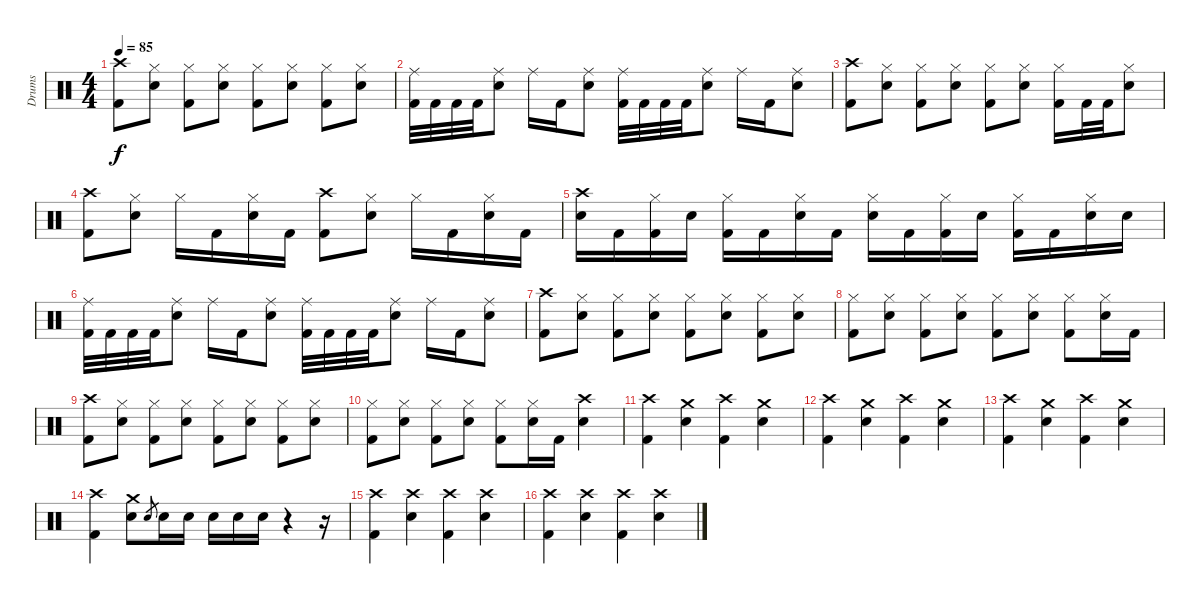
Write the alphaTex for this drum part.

\track ("Drums" "Drums") {instrument percussion}
\staff {score}
\articulation defaults
\ts (4 4)
\tempo 85
\clef neutral
\ks c
("Crash high (hit)" "Kick (hit) 2").8{dy f} ("Hi-Hat (closed)" "Electric Snare (hit)").8 ("Hi-Hat (closed)" "Kick (hit) 2").8 ("Hi-Hat (closed)" "Electric Snare (hit)").8 ("Hi-Hat (closed)" "Kick (hit) 2").8 ("Hi-Hat (closed)" "Electric Snare (hit)").8 ("Hi-Hat (closed)" "Kick (hit) 2").8 ("Hi-Hat (closed)" "Electric Snare (hit)").8 |
("Ride (middle)" "Kick (hit) 2").32 "Kick (hit) 2".32 "Kick (hit) 2".32 "Kick (hit) 2".32 ("Ride (middle)" "Electric Snare (hit)").8 "Ride (middle)".16 "Kick (hit) 2".16 ("Ride (middle)" "Electric Snare (hit)").8 ("Ride (middle)" "Kick (hit) 2").32 "Kick (hit) 2".32 "Kick (hit) 2".32 "Kick (hit) 2".32 ("Ride (middle)" "Electric Snare (hit)").8 "Ride (middle)".16 "Kick (hit) 2".16 ("Ride (middle)" "Electric Snare (hit)").8 |
("Crash high (hit)" "Kick (hit) 2").8 ("Hi-Hat (closed)" "Electric Snare (hit)").8 ("Hi-Hat (closed)" "Kick (hit) 2").8 ("Hi-Hat (closed)" "Electric Snare (hit)").8 ("Hi-Hat (closed)" "Kick (hit) 2").8 ("Hi-Hat (closed)" "Electric Snare (hit)").8 ("Hi-Hat (closed)" "Kick (hit) 2").16 "Kick (hit) 2".32 "Kick (hit) 2".32 ("Hi-Hat (closed)" "Electric Snare (hit)").8 |
("Crash high (hit)" "Kick (hit) 2").8 ("Hi-Hat (closed)" "Electric Snare (hit)").8 "Hi-Hat (closed)".16 "Kick (hit) 2".16 ("Hi-Hat (closed)" "Electric Snare (hit)").16 "Kick (hit) 2".16 ("Crash high (hit)" "Kick (hit) 2").8 ("Hi-Hat (closed)" "Electric Snare (hit)").8 "Hi-Hat (closed)".16 "Kick (hit) 2".16 ("Hi-Hat (closed)" "Electric Snare (hit)").16 "Kick (hit) 2".16 |
("Crash high (hit)" "Electric Snare (hit)").16 "Kick (hit) 2".16 ("Hi-Hat (closed)" "Kick (hit) 2").16 "Electric Snare (hit)".16 ("Hi-Hat (closed)" "Kick (hit) 2").16 "Kick (hit) 2".16 ("Hi-Hat (closed)" "Electric Snare (hit)").16 "Kick (hit) 2".16 ("Hi-Hat (closed)" "Electric Snare (hit)").16 "Kick (hit) 2".16 ("Hi-Hat (closed)" "Kick (hit) 2").16 "Electric Snare (hit)".16 ("Hi-Hat (closed)" "Kick (hit) 2").16 "Kick (hit) 2".16 ("Hi-Hat (closed)" "Electric Snare (hit)").16 "Electric Snare (hit)".16 |
("Ride (middle)" "Kick (hit) 2").32 "Kick (hit) 2".32 "Kick (hit) 2".32 "Kick (hit) 2".32 ("Ride (middle)" "Electric Snare (hit)").8 "Ride (middle)".16 "Kick (hit) 2".16 ("Ride (middle)" "Electric Snare (hit)").8 ("Ride (middle)" "Kick (hit) 2").32 "Kick (hit) 2".32 "Kick (hit) 2".32 "Kick (hit) 2".32 ("Ride (middle)" "Electric Snare (hit)").8 "Ride (middle)".16 "Kick (hit) 2".16 ("Ride (middle)" "Electric Snare (hit)").8 |
("Crash high (hit)" "Kick (hit) 2").8 ("Hi-Hat (closed)" "Electric Snare (hit)").8 ("Hi-Hat (closed)" "Kick (hit) 2").8 ("Hi-Hat (closed)" "Electric Snare (hit)").8 ("Hi-Hat (closed)" "Kick (hit) 2").8 ("Hi-Hat (closed)" "Electric Snare (hit)").8 ("Hi-Hat (closed)" "Kick (hit) 2").8 ("Hi-Hat (closed)" "Electric Snare (hit)").8 |
("Hi-Hat (closed)" "Kick (hit) 2").8 ("Hi-Hat (closed)" "Electric Snare (hit)").8 ("Hi-Hat (closed)" "Kick (hit) 2").8 ("Hi-Hat (closed)" "Electric Snare (hit)").8 ("Hi-Hat (closed)" "Kick (hit) 2").8 ("Hi-Hat (closed)" "Electric Snare (hit)").8 ("Hi-Hat (closed)" "Kick (hit) 2").8 ("Hi-Hat (closed)" "Electric Snare (hit)").16 "Kick (hit) 2".16 |
("Crash high (hit)" "Kick (hit) 2").8 ("Hi-Hat (closed)" "Electric Snare (hit)").8 ("Hi-Hat (closed)" "Kick (hit) 2").8 ("Hi-Hat (closed)" "Electric Snare (hit)").8 ("Hi-Hat (closed)" "Kick (hit) 2").8 ("Hi-Hat (closed)" "Electric Snare (hit)").8 ("Hi-Hat (closed)" "Kick (hit) 2").8 ("Hi-Hat (closed)" "Electric Snare (hit)").8 |
("Hi-Hat (closed)" "Kick (hit) 2").8 ("Hi-Hat (closed)" "Electric Snare (hit)").8 ("Hi-Hat (closed)" "Kick (hit) 2").8 ("Hi-Hat (closed)" "Electric Snare (hit)").8 ("Hi-Hat (closed)" "Kick (hit) 2").8 ("Hi-Hat (closed)" "Electric Snare (hit)").16 "Kick (hit) 2".16 ("Crash high (hit)" "Electric Snare (hit)").4 |
("Crash high (hit)" "Kick (hit) 2").4 ("Crash medium (hit)" "Electric Snare (hit)").4 ("Crash high (hit)" "Kick (hit) 2").4 ("Crash medium (hit)" "Electric Snare (hit)").4 |
("Crash high (hit)" "Kick (hit) 2").4 ("Crash medium (hit)" "Electric Snare (hit)").4 ("Crash high (hit)" "Kick (hit) 2").4 ("Crash medium (hit)" "Electric Snare (hit)").4 |
("Crash high (hit)" "Kick (hit) 2").4 ("Crash medium (hit)" "Electric Snare (hit)").4 ("Crash high (hit)" "Kick (hit) 2").4 ("Crash medium (hit)" "Electric Snare (hit)").4 |
("Crash high (hit)" "Kick (hit) 2").4 ("Crash medium (hit)" "Electric Snare (hit)").8 "Electric Snare (hit)".8{gr} "Electric Snare (hit)".16 "Electric Snare (hit)".16 "Electric Snare (hit)".16 "Electric Snare (hit)".16 "Electric Snare (hit)".16 r.4 r.16 |
("Crash high (hit)" "Kick (hit) 2").4 ("Crash high (hit)" "Electric Snare (hit)").4 ("Crash high (hit)" "Kick (hit) 2").4 ("Crash high (hit)" "Electric Snare (hit)").4 |
("Crash high (hit)" "Kick (hit) 2").4 ("Crash high (hit)" "Electric Snare (hit)").4 ("Crash high (hit)" "Kick (hit) 2").4 ("Crash high (hit)" "Electric Snare (hit)").4
